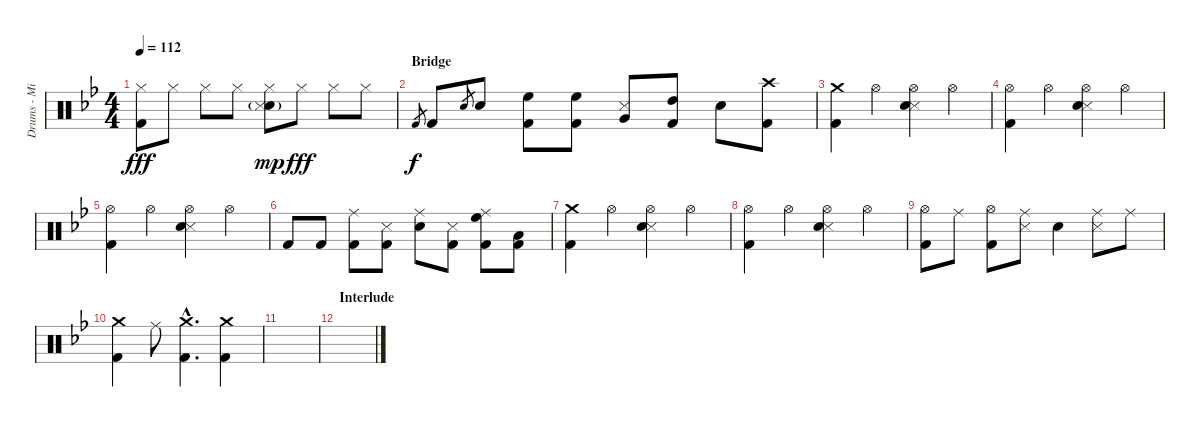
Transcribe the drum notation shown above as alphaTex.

\track ("Drums - Miko" "Drums - Mi") {instrument percussion}
\staff {score}
\articulation defaults
\ts (4 4)
\tempo 112
\clef neutral
\ks bb
("Hi-Hat (closed)" "Kick (hit) 2").8{dy fff} "Hi-Hat (closed)".8 "Hi-Hat (closed)".8 "Hi-Hat (closed)".8 ("Hi-Hat (closed)" "Snare (hit) 2"{g} "Snare (side stick) 3").8{dy mp} "Hi-Hat (closed)".8{dy fff} "Hi-Hat (closed)".8 "Hi-Hat (closed)".8 |
\section ("" "Bridge")
"Kick (hit) 2".8{gr dy f} "Kick (hit) 2".8 "Electric Snare (hit)".8{gr} "Electric Snare (hit)".8 ("High Floor Tom (hit)" "Kick (hit) 2").8 ("High Floor Tom (hit)" "Kick (hit) 2").8 ("Very Low Tom (hit)" "Snare (side stick) 3").8 ("High Tom (hit)" "Kick (hit) 2").8 "Electric Snare (hit)".8 ("Crash high (hit)" "Kick (hit) 2").8 |
("Crash medium (hit)" "Kick (hit) 2").4 "Hi-Hat (open)".4 ("Hi-Hat (open)" "Snare (side stick) 3" "Electric Snare (hit)").4 "Hi-Hat (open)".4 |
("Hi-Hat (open)" "Kick (hit) 2").4 "Hi-Hat (open)".4 ("Hi-Hat (open)" "Snare (side stick) 3" "Electric Snare (hit)").4 "Hi-Hat (open)".4 |
("Hi-Hat (open)" "Kick (hit) 2").4 "Hi-Hat (open)".4 ("Hi-Hat (open)" "Snare (side stick) 3" "Electric Snare (hit)").4 "Hi-Hat (open)".4 |
"Kick (hit) 2".8 "Kick (hit) 2".8 ("Ride (middle)" "Kick (hit) 2").8 ("Snare (side stick) 3" "Kick (hit) 2").8 ("Ride (middle)" "Electric Snare (hit)").8 ("Snare (side stick) 3" "Kick (hit) 2").8 ("Ride (middle)" "High Floor Tom (hit)" "Kick (hit) 2").8 ("Low Floor Tom (hit)" "Kick (hit) 2").8 |
("Crash medium (hit)" "Kick (hit) 2").4 "Hi-Hat (open)".4 ("Hi-Hat (open)" "Snare (side stick) 3" "Electric Snare (hit)").4 "Hi-Hat (open)".4 |
("Hi-Hat (open)" "Kick (hit) 2").4 "Hi-Hat (open)".4 ("Hi-Hat (open)" "Snare (side stick) 3" "Electric Snare (hit)").4 "Hi-Hat (open)".4 |
("Hi-Hat (open)" "Kick (hit) 2").8 "Ride (middle)".8 ("Hi-Hat (open)" "Kick (hit) 2").8 ("Ride (middle)" "Snare (side stick) 3").8 "Electric Snare (hit)".4 ("Ride (middle)" "Snare (side stick) 3").8 "Ride (middle)".8 |
("Crash medium (hit)" "Kick (hit) 2").4 "Ride (middle)".8 ("Crash medium (hit)"{hac} "Kick (hit) 2"{hac}).4{d} ("Crash medium (hit)" "Kick (hit) 2").4 |
|
\section ("" "Interlude")
